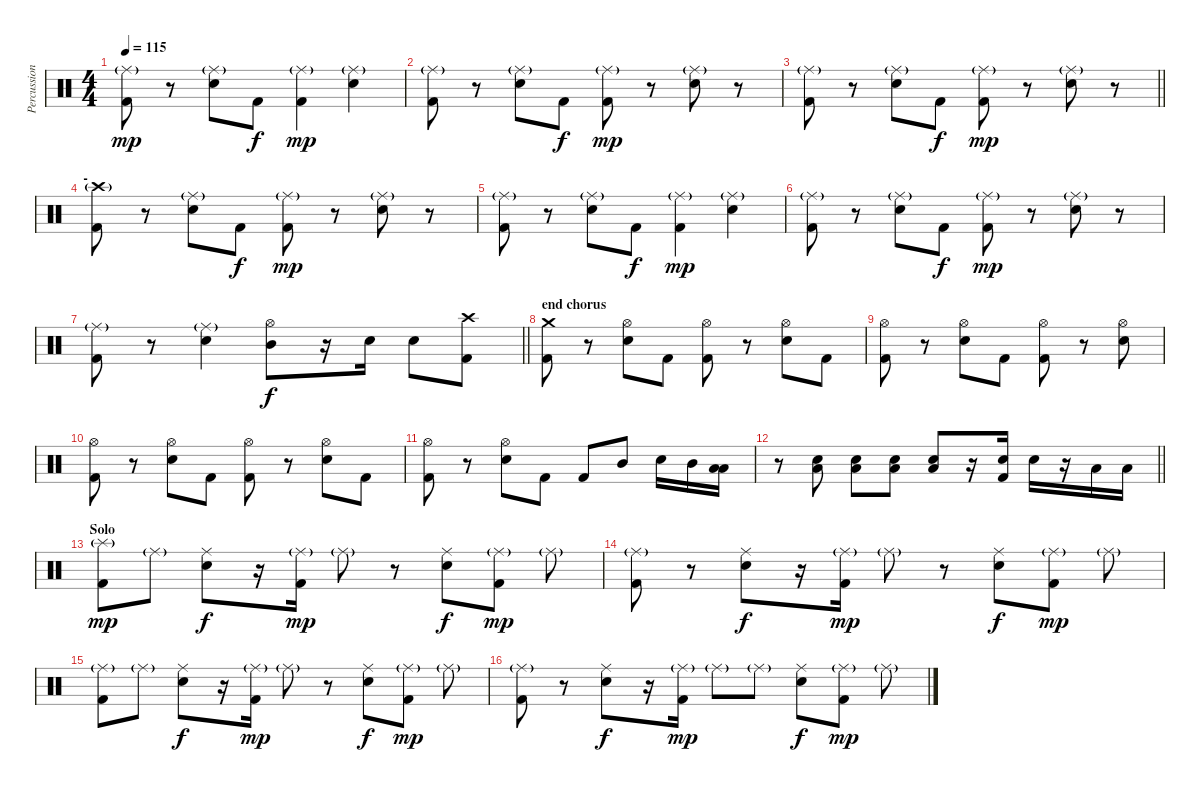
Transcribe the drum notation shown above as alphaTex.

\track ("Percussion" "Percussion") {instrument percussion}
\staff {score}
\articulation defaults
\ts (4 4)
\tempo 115
\clef neutral
\ks c
("Ride (middle)"{g} "Kick (hit) 2").8{dy mp} r.8 ("Ride (middle)"{g} "Electric Snare (hit)").8 "Kick (hit) 2".8{dy f} ("Ride (middle)"{g} "Kick (hit) 2").4{dy mp} ("Ride (middle)"{g} "Electric Snare (hit)").4 |
("Ride (middle)"{g} "Kick (hit) 2").8 r.8 ("Ride (middle)"{g} "Electric Snare (hit)").8 "Kick (hit) 2".8{dy f} ("Ride (middle)"{g} "Kick (hit) 2").8{dy mp} r.8 ("Ride (middle)"{g} "Electric Snare (hit)").8 r.8 |
\barLineRight lightlight
("Ride (middle)"{g} "Kick (hit) 2").8 r.8 ("Ride (middle)"{g} "Electric Snare (hit)").8 "Kick (hit) 2".8{dy f} ("Ride (middle)"{g} "Kick (hit) 2").8{dy mp} r.8 ("Ride (middle)"{g} "Electric Snare (hit)").8 r.8 |
\section ("" "-")
("Crash high (hit)"{g} "Kick (hit) 2").8 r.8 ("Ride (middle)"{g} "Electric Snare (hit)").8 "Kick (hit) 2".8{dy f} ("Ride (middle)"{g} "Kick (hit) 2").8{dy mp} r.8 ("Ride (middle)"{g} "Electric Snare (hit)").8 r.8 |
("Ride (middle)"{g} "Kick (hit) 2").8 r.8 ("Ride (middle)"{g} "Electric Snare (hit)").8 "Kick (hit) 2".8{dy f} ("Ride (middle)"{g} "Kick (hit) 2").4{dy mp} ("Ride (middle)"{g} "Electric Snare (hit)").4 |
("Ride (middle)"{g} "Kick (hit) 2").8 r.8 ("Ride (middle)"{g} "Electric Snare (hit)").8 "Kick (hit) 2".8{dy f} ("Ride (middle)"{g} "Kick (hit) 2").8{dy mp} r.8 ("Ride (middle)"{g} "Electric Snare (hit)").8 r.8 |
\barLineRight lightlight
("Ride (middle)"{g} "Kick (hit) 2").8 r.8 ("Ride (middle)"{g} "Electric Snare (hit)").4 ("Hi-Hat (open)" "Mid Tom (hit)").8{dy f} r.16 "Electric Snare (hit)".16 "Electric Snare (hit)".8 ("Crash high (hit)" "Kick (hit) 2").8 |
\section ("" "end chorus")
("Crash medium (hit)" "Kick (hit) 2").8 r.8 ("Hi-Hat (open)" "Electric Snare (hit)").8 "Kick (hit) 2".8 ("Hi-Hat (open)" "Kick (hit) 2").8 r.8 ("Hi-Hat (open)" "Electric Snare (hit)").8 "Kick (hit) 2".8 |
("Hi-Hat (open)" "Kick (hit) 2").8 r.8 ("Hi-Hat (open)" "Electric Snare (hit)").8 "Kick (hit) 2".8 ("Hi-Hat (open)" "Kick (hit) 2").8 r.8 ("Hi-Hat (open)" "Electric Snare (hit)").8 |
("Hi-Hat (open)" "Kick (hit) 2").8 r.8 ("Hi-Hat (open)" "Electric Snare (hit)").8 "Kick (hit) 2".8 ("Hi-Hat (open)" "Kick (hit) 2").8 r.8 ("Hi-Hat (open)" "Electric Snare (hit)").8 "Kick (hit) 2".8 |
("Hi-Hat (open)" "Kick (hit) 2").8 r.8 ("Hi-Hat (open)" "Electric Snare (hit)").8 "Kick (hit) 2".8 "Kick (hit) 2".8 "Mid Tom (hit)".8 "Snare (hit) 2".16 "Mid Tom (hit)".16 ("Low Floor Tom (hit)" "Low Tom (hit)").16 |
\barLineRight lightlight
r.8 ("Low Floor Tom (hit)" "Electric Snare (hit)").8 ("Low Floor Tom (hit)" "Electric Snare (hit)").8 ("Low Floor Tom (hit)" "Electric Snare (hit)").8 ("Low Floor Tom (hit)" "Electric Snare (hit)").8 r.16 ("Electric Snare (hit)" "Kick (hit) 2").16 "Electric Snare (hit)".16 r.16 "Low Tom (hit)".16 "Low Tom (hit)".16 |
\section ("" "Solo")
("Splash (hit)"{g} "Kick (hit) 2").8{dy mp} "Ride (middle)"{g}.8 ("Ride (middle)" "Electric Snare (hit)").8{dy f} r.16 ("Ride (middle)"{g} "Kick (hit) 2").16{dy mp} "Ride (middle)"{g}.8 r.8 ("Ride (middle)" "Electric Snare (hit)").8{dy f} ("Ride (middle)"{g} "Kick (hit) 2").8{dy mp} "Ride (middle)"{g}.8 |
("Ride (middle)"{g} "Kick (hit) 2").8 r.8 ("Ride (middle)" "Electric Snare (hit)").8{dy f} r.16 ("Ride (middle)"{g} "Kick (hit) 2").16{dy mp} "Ride (middle)"{g}.8 r.8 ("Ride (middle)" "Electric Snare (hit)").8{dy f} ("Ride (middle)"{g} "Kick (hit) 2").8{dy mp} "Ride (middle)"{g}.8 |
("Ride (middle)"{g} "Kick (hit) 2").8 "Ride (middle)"{g}.8 ("Ride (middle)" "Electric Snare (hit)").8{dy f} r.16 ("Ride (middle)"{g} "Kick (hit) 2").16{dy mp} "Ride (middle)"{g}.8 r.8 ("Ride (middle)" "Electric Snare (hit)").8{dy f} ("Ride (middle)"{g} "Kick (hit) 2").8{dy mp} "Ride (middle)"{g}.8 |
("Ride (middle)"{g} "Kick (hit) 2").8 r.8 ("Ride (middle)" "Electric Snare (hit)").8{dy f} r.16 ("Ride (middle)"{g} "Kick (hit) 2").16{dy mp} "Ride (middle)"{g}.8 "Ride (middle)"{g}.8 ("Ride (middle)" "Electric Snare (hit)").8{dy f} ("Ride (middle)"{g} "Kick (hit) 2").8{dy mp} "Ride (middle)"{g}.8
